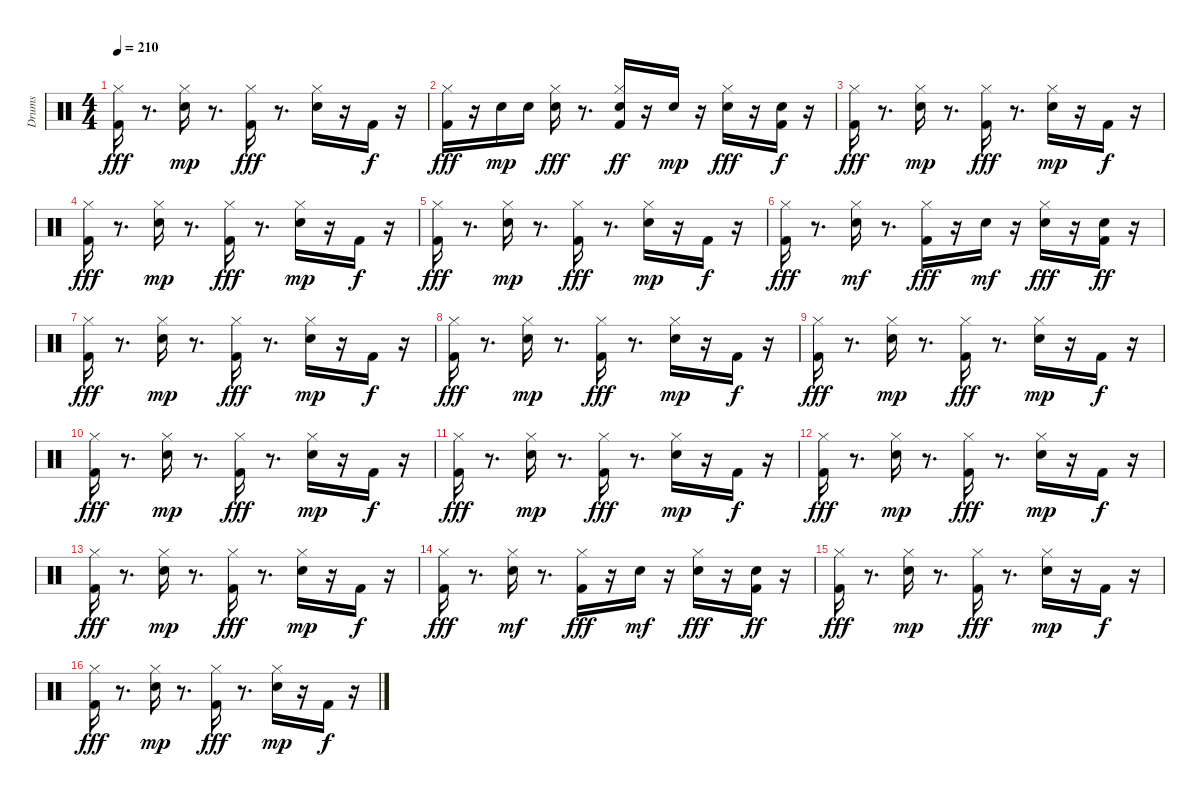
\track ("Drums " "Drums ") {instrument percussion}
\staff {score}
\articulation defaults
\ts (4 4)
\tempo 210
\clef neutral
\ks c
("Kick (hit) 2" "Hi-Hat (closed)").16{dy fff} r.8{d} ("Snare (hit) 2" "Hi-Hat (closed)").16{dy mp} r.8{d} ("Kick (hit) 2" "Hi-Hat (closed)").16{dy fff} r.8{d} ("Snare (hit) 2" "Hi-Hat (closed)").16 r.16 "Kick (hit) 2".16{dy f} r.16 |
("Kick (hit) 2" "Hi-Hat (closed)").16{dy fff} r.16 "Snare (hit) 2".16{dy mp} "Snare (hit) 2".16 ("Snare (hit) 2" "Hi-Hat (closed)").16{dy fff} r.8{d} ("Kick (hit) 2" "Snare (hit) 2" "Hi-Hat (closed)").16{dy ff} r.16 "Snare (hit) 2".16{dy mp} r.16 ("Snare (hit) 2" "Hi-Hat (closed)").16{dy fff} r.16 ("Kick (hit) 2" "Snare (hit) 2").16{dy f} r.16 |
("Kick (hit) 2" "Hi-Hat (closed)").16{dy fff} r.8{d} ("Snare (hit) 2" "Hi-Hat (closed)").16{dy mp} r.8{d} ("Kick (hit) 2" "Hi-Hat (closed)").16{dy fff} r.8{d} ("Snare (hit) 2" "Hi-Hat (closed)").16{dy mp} r.16 "Kick (hit) 2".16{dy f} r.16 |
("Kick (hit) 2" "Hi-Hat (closed)").16{dy fff} r.8{d} ("Snare (hit) 2" "Hi-Hat (closed)").16{dy mp} r.8{d} ("Kick (hit) 2" "Hi-Hat (closed)").16{dy fff} r.8{d} ("Snare (hit) 2" "Hi-Hat (closed)").16{dy mp} r.16 "Kick (hit) 2".16{dy f} r.16 |
("Kick (hit) 2" "Hi-Hat (closed)").16{dy fff} r.8{d} ("Snare (hit) 2" "Hi-Hat (closed)").16{dy mp} r.8{d} ("Kick (hit) 2" "Hi-Hat (closed)").16{dy fff} r.8{d} ("Snare (hit) 2" "Hi-Hat (closed)").16{dy mp} r.16 "Kick (hit) 2".16{dy f} r.16 |
("Kick (hit) 2" "Hi-Hat (closed)").16{dy fff} r.8{d} ("Snare (hit) 2" "Hi-Hat (closed)").16{dy mf} r.8{d} ("Kick (hit) 2" "Hi-Hat (closed)").16{dy fff} r.16 "Snare (hit) 2".16{dy mf} r.16 ("Snare (hit) 2" "Hi-Hat (closed)").16{dy fff} r.16 ("Kick (hit) 2" "Snare (hit) 2").16{dy ff} r.16 |
("Kick (hit) 2" "Hi-Hat (closed)").16{dy fff} r.8{d} ("Snare (hit) 2" "Hi-Hat (closed)").16{dy mp} r.8{d} ("Kick (hit) 2" "Hi-Hat (closed)").16{dy fff} r.8{d} ("Snare (hit) 2" "Hi-Hat (closed)").16{dy mp} r.16 "Kick (hit) 2".16{dy f} r.16 |
("Kick (hit) 2" "Hi-Hat (closed)").16{dy fff} r.8{d} ("Snare (hit) 2" "Hi-Hat (closed)").16{dy mp} r.8{d} ("Kick (hit) 2" "Hi-Hat (closed)").16{dy fff} r.8{d} ("Snare (hit) 2" "Hi-Hat (closed)").16{dy mp} r.16 "Kick (hit) 2".16{dy f} r.16 |
("Kick (hit) 2" "Hi-Hat (closed)").16{dy fff} r.8{d} ("Snare (hit) 2" "Hi-Hat (closed)").16{dy mp} r.8{d} ("Kick (hit) 2" "Hi-Hat (closed)").16{dy fff} r.8{d} ("Snare (hit) 2" "Hi-Hat (closed)").16{dy mp} r.16 "Kick (hit) 2".16{dy f} r.16 |
("Kick (hit) 2" "Hi-Hat (closed)").16{dy fff} r.8{d} ("Snare (hit) 2" "Hi-Hat (closed)").16{dy mp} r.8{d} ("Kick (hit) 2" "Hi-Hat (closed)").16{dy fff} r.8{d} ("Snare (hit) 2" "Hi-Hat (closed)").16{dy mp} r.16 "Kick (hit) 2".16{dy f} r.16 |
("Kick (hit) 2" "Hi-Hat (closed)").16{dy fff} r.8{d} ("Snare (hit) 2" "Hi-Hat (closed)").16{dy mp} r.8{d} ("Kick (hit) 2" "Hi-Hat (closed)").16{dy fff} r.8{d} ("Snare (hit) 2" "Hi-Hat (closed)").16{dy mp} r.16 "Kick (hit) 2".16{dy f} r.16 |
("Kick (hit) 2" "Hi-Hat (closed)").16{dy fff} r.8{d} ("Snare (hit) 2" "Hi-Hat (closed)").16{dy mp} r.8{d} ("Kick (hit) 2" "Hi-Hat (closed)").16{dy fff} r.8{d} ("Snare (hit) 2" "Hi-Hat (closed)").16{dy mp} r.16 "Kick (hit) 2".16{dy f} r.16 |
("Kick (hit) 2" "Hi-Hat (closed)").16{dy fff} r.8{d} ("Snare (hit) 2" "Hi-Hat (closed)").16{dy mp} r.8{d} ("Kick (hit) 2" "Hi-Hat (closed)").16{dy fff} r.8{d} ("Snare (hit) 2" "Hi-Hat (closed)").16{dy mp} r.16 "Kick (hit) 2".16{dy f} r.16 |
("Kick (hit) 2" "Hi-Hat (closed)").16{dy fff} r.8{d} ("Snare (hit) 2" "Hi-Hat (closed)").16{dy mf} r.8{d} ("Kick (hit) 2" "Hi-Hat (closed)").16{dy fff} r.16 "Snare (hit) 2".16{dy mf} r.16 ("Snare (hit) 2" "Hi-Hat (closed)").16{dy fff} r.16 ("Kick (hit) 2" "Snare (hit) 2").16{dy ff} r.16 |
("Kick (hit) 2" "Hi-Hat (closed)").16{dy fff} r.8{d} ("Snare (hit) 2" "Hi-Hat (closed)").16{dy mp} r.8{d} ("Kick (hit) 2" "Hi-Hat (closed)").16{dy fff} r.8{d} ("Snare (hit) 2" "Hi-Hat (closed)").16{dy mp} r.16 "Kick (hit) 2".16{dy f} r.16 |
("Kick (hit) 2" "Hi-Hat (closed)").16{dy fff} r.8{d} ("Snare (hit) 2" "Hi-Hat (closed)").16{dy mp} r.8{d} ("Kick (hit) 2" "Hi-Hat (closed)").16{dy fff} r.8{d} ("Snare (hit) 2" "Hi-Hat (closed)").16{dy mp} r.16 "Kick (hit) 2".16{dy f} r.16
